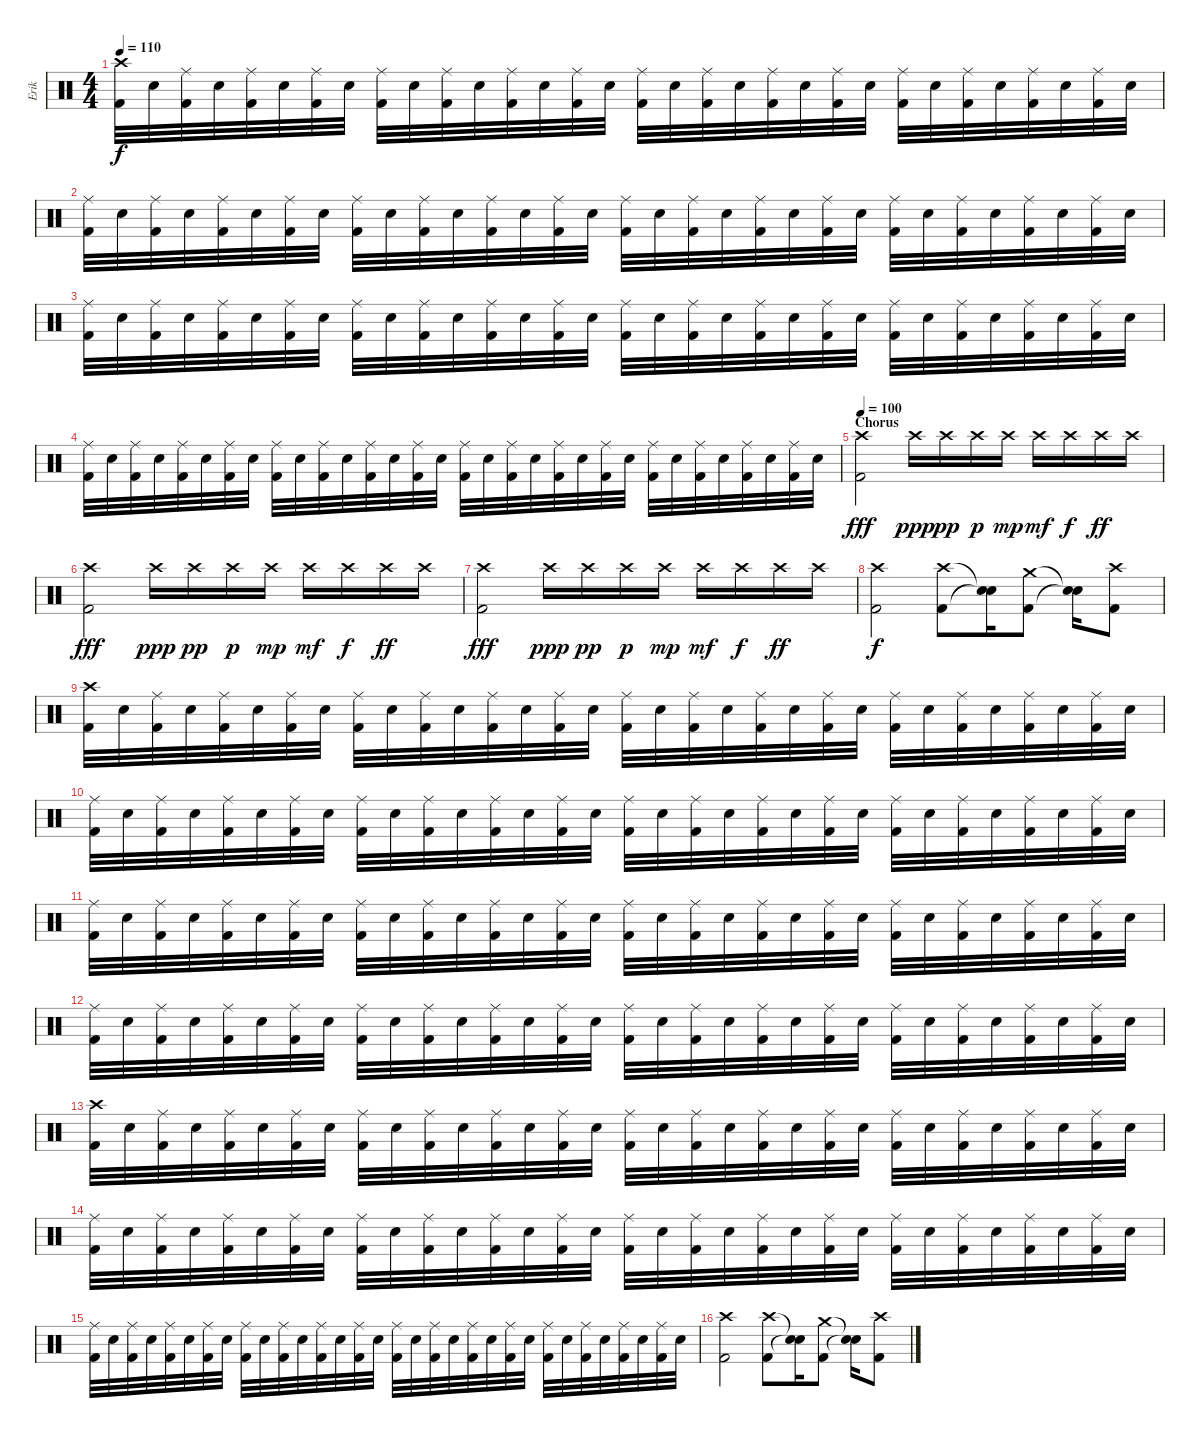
\track ("Erik" "Erik") {instrument percussion}
\staff {score}
\articulation defaults
\ts (4 4)
\tempo 110
\clef neutral
\ks c
("Crash high (hit)" "Kick (hit) 2").32{dy f} "Electric Snare (hit)".32 ("Ride (middle)" "Kick (hit) 2").32 "Electric Snare (hit)".32 ("Ride (middle)" "Kick (hit) 2").32 "Electric Snare (hit)".32 ("Ride (middle)" "Kick (hit) 2").32 "Electric Snare (hit)".32 ("Ride (middle)" "Kick (hit) 2").32 "Electric Snare (hit)".32 ("Ride (middle)" "Kick (hit) 2").32 "Electric Snare (hit)".32 ("Ride (middle)" "Kick (hit) 2").32 "Electric Snare (hit)".32 ("Ride (middle)" "Kick (hit) 2").32 "Electric Snare (hit)".32 ("Ride (middle)" "Kick (hit) 2").32 "Electric Snare (hit)".32 ("Ride (middle)" "Kick (hit) 2").32 "Electric Snare (hit)".32 ("Ride (middle)" "Kick (hit) 2").32 "Electric Snare (hit)".32 ("Ride (middle)" "Kick (hit) 2").32 "Electric Snare (hit)".32 ("Ride (middle)" "Kick (hit) 2").32 "Electric Snare (hit)".32 ("Ride (middle)" "Kick (hit) 2").32 "Electric Snare (hit)".32 ("Ride (middle)" "Kick (hit) 2").32 "Electric Snare (hit)".32 ("Ride (middle)" "Kick (hit) 2").32 "Electric Snare (hit)".32 |
("Ride (middle)" "Kick (hit) 2").32 "Electric Snare (hit)".32 ("Ride (middle)" "Kick (hit) 2").32 "Electric Snare (hit)".32 ("Ride (middle)" "Kick (hit) 2").32 "Electric Snare (hit)".32 ("Ride (middle)" "Kick (hit) 2").32 "Electric Snare (hit)".32 ("Ride (middle)" "Kick (hit) 2").32 "Electric Snare (hit)".32 ("Ride (middle)" "Kick (hit) 2").32 "Electric Snare (hit)".32 ("Ride (middle)" "Kick (hit) 2").32 "Electric Snare (hit)".32 ("Ride (middle)" "Kick (hit) 2").32 "Electric Snare (hit)".32 ("Ride (middle)" "Kick (hit) 2").32 "Electric Snare (hit)".32 ("Ride (middle)" "Kick (hit) 2").32 "Electric Snare (hit)".32 ("Ride (middle)" "Kick (hit) 2").32 "Electric Snare (hit)".32 ("Ride (middle)" "Kick (hit) 2").32 "Electric Snare (hit)".32 ("Ride (middle)" "Kick (hit) 2").32 "Electric Snare (hit)".32 ("Ride (middle)" "Kick (hit) 2").32 "Electric Snare (hit)".32 ("Ride (middle)" "Kick (hit) 2").32 "Electric Snare (hit)".32 ("Ride (middle)" "Kick (hit) 2").32 "Electric Snare (hit)".32 |
("Ride (middle)" "Kick (hit) 2").32 "Electric Snare (hit)".32 ("Ride (middle)" "Kick (hit) 2").32 "Electric Snare (hit)".32 ("Ride (middle)" "Kick (hit) 2").32 "Electric Snare (hit)".32 ("Ride (middle)" "Kick (hit) 2").32 "Electric Snare (hit)".32 ("Ride (middle)" "Kick (hit) 2").32 "Electric Snare (hit)".32 ("Ride (middle)" "Kick (hit) 2").32 "Electric Snare (hit)".32 ("Ride (middle)" "Kick (hit) 2").32 "Electric Snare (hit)".32 ("Ride (middle)" "Kick (hit) 2").32 "Electric Snare (hit)".32 ("Ride (middle)" "Kick (hit) 2").32 "Electric Snare (hit)".32 ("Ride (middle)" "Kick (hit) 2").32 "Electric Snare (hit)".32 ("Ride (middle)" "Kick (hit) 2").32 "Electric Snare (hit)".32 ("Ride (middle)" "Kick (hit) 2").32 "Electric Snare (hit)".32 ("Ride (middle)" "Kick (hit) 2").32 "Electric Snare (hit)".32 ("Ride (middle)" "Kick (hit) 2").32 "Electric Snare (hit)".32 ("Ride (middle)" "Kick (hit) 2").32 "Electric Snare (hit)".32 ("Ride (middle)" "Kick (hit) 2").32 "Electric Snare (hit)".32 |
("Ride (middle)" "Kick (hit) 2").32 "Electric Snare (hit)".32 ("Ride (middle)" "Kick (hit) 2").32 "Electric Snare (hit)".32 ("Ride (middle)" "Kick (hit) 2").32 "Electric Snare (hit)".32 ("Ride (middle)" "Kick (hit) 2").32 "Electric Snare (hit)".32 ("Ride (middle)" "Kick (hit) 2").32 "Electric Snare (hit)".32 ("Ride (middle)" "Kick (hit) 2").32 "Electric Snare (hit)".32 ("Ride (middle)" "Kick (hit) 2").32 "Electric Snare (hit)".32 ("Ride (middle)" "Kick (hit) 2").32 "Electric Snare (hit)".32 ("Ride (middle)" "Kick (hit) 2").32 "Electric Snare (hit)".32 ("Ride (middle)" "Kick (hit) 2").32 "Electric Snare (hit)".32 ("Ride (middle)" "Kick (hit) 2").32 "Electric Snare (hit)".32 ("Ride (middle)" "Kick (hit) 2").32 "Electric Snare (hit)".32 ("Ride (middle)" "Kick (hit) 2").32 "Electric Snare (hit)".32 ("Ride (middle)" "Kick (hit) 2").32 "Electric Snare (hit)".32 ("Ride (middle)" "Kick (hit) 2").32 "Electric Snare (hit)".32 ("Ride (middle)" "Kick (hit) 2").32 "Electric Snare (hit)".32 |
\section ("" "Chorus")
\tempo 100
("Crash high (hit)" "Kick (hit) 2").2{dy fff} "Crash high (hit)".16{dy ppp} "Crash high (hit)".16{dy pp} "Crash high (hit)".16{dy p} "Crash high (hit)".16{dy mp} "Crash high (hit)".16{dy mf} "Crash high (hit)".16{dy f} "Crash high (hit)".16{dy ff} "Crash high (hit)".16 |
("Crash high (hit)" "Kick (hit) 2").2{dy fff} "Crash high (hit)".16{dy ppp} "Crash high (hit)".16{dy pp} "Crash high (hit)".16{dy p} "Crash high (hit)".16{dy mp} "Crash high (hit)".16{dy mf} "Crash high (hit)".16{dy f} "Crash high (hit)".16{dy ff} "Crash high (hit)".16 |
("Crash high (hit)" "Kick (hit) 2").2{dy fff} "Crash high (hit)".16{dy ppp} "Crash high (hit)".16{dy pp} "Crash high (hit)".16{dy p} "Crash high (hit)".16{dy mp} "Crash high (hit)".16{dy mf} "Crash high (hit)".16{dy f} "Crash high (hit)".16{dy ff} "Crash high (hit)".16 |
("Crash high (hit)" "Kick (hit) 2").2{dy f} ("Crash high (hit)" "Kick (hit) 2").8 ("Snare (hit)"{t} "Snare (hit)"{t}).16 ("Crash medium (hit)" "Kick (hit) 2").8 ("Snare (hit)"{t} "Snare (hit)"{t}).16 ("Crash high (hit)" "Kick (hit) 2").8 |
("Crash high (hit)" "Kick (hit) 2").32 "Electric Snare (hit)".32 ("Ride (middle)" "Kick (hit) 2").32 "Electric Snare (hit)".32 ("Ride (middle)" "Kick (hit) 2").32 "Electric Snare (hit)".32 ("Ride (middle)" "Kick (hit) 2").32 "Electric Snare (hit)".32 ("Ride (middle)" "Kick (hit) 2").32 "Electric Snare (hit)".32 ("Ride (middle)" "Kick (hit) 2").32 "Electric Snare (hit)".32 ("Ride (middle)" "Kick (hit) 2").32 "Electric Snare (hit)".32 ("Ride (middle)" "Kick (hit) 2").32 "Electric Snare (hit)".32 ("Ride (middle)" "Kick (hit) 2").32 "Electric Snare (hit)".32 ("Ride (middle)" "Kick (hit) 2").32 "Electric Snare (hit)".32 ("Ride (middle)" "Kick (hit) 2").32 "Electric Snare (hit)".32 ("Ride (middle)" "Kick (hit) 2").32 "Electric Snare (hit)".32 ("Ride (middle)" "Kick (hit) 2").32 "Electric Snare (hit)".32 ("Ride (middle)" "Kick (hit) 2").32 "Electric Snare (hit)".32 ("Ride (middle)" "Kick (hit) 2").32 "Electric Snare (hit)".32 ("Ride (middle)" "Kick (hit) 2").32 "Electric Snare (hit)".32 |
("Ride (middle)" "Kick (hit) 2").32 "Electric Snare (hit)".32 ("Ride (middle)" "Kick (hit) 2").32 "Electric Snare (hit)".32 ("Ride (middle)" "Kick (hit) 2").32 "Electric Snare (hit)".32 ("Ride (middle)" "Kick (hit) 2").32 "Electric Snare (hit)".32 ("Ride (middle)" "Kick (hit) 2").32 "Electric Snare (hit)".32 ("Ride (middle)" "Kick (hit) 2").32 "Electric Snare (hit)".32 ("Ride (middle)" "Kick (hit) 2").32 "Electric Snare (hit)".32 ("Ride (middle)" "Kick (hit) 2").32 "Electric Snare (hit)".32 ("Ride (middle)" "Kick (hit) 2").32 "Electric Snare (hit)".32 ("Ride (middle)" "Kick (hit) 2").32 "Electric Snare (hit)".32 ("Ride (middle)" "Kick (hit) 2").32 "Electric Snare (hit)".32 ("Ride (middle)" "Kick (hit) 2").32 "Electric Snare (hit)".32 ("Ride (middle)" "Kick (hit) 2").32 "Electric Snare (hit)".32 ("Ride (middle)" "Kick (hit) 2").32 "Electric Snare (hit)".32 ("Ride (middle)" "Kick (hit) 2").32 "Electric Snare (hit)".32 ("Ride (middle)" "Kick (hit) 2").32 "Electric Snare (hit)".32 |
("Ride (middle)" "Kick (hit) 2").32 "Electric Snare (hit)".32 ("Ride (middle)" "Kick (hit) 2").32 "Electric Snare (hit)".32 ("Ride (middle)" "Kick (hit) 2").32 "Electric Snare (hit)".32 ("Ride (middle)" "Kick (hit) 2").32 "Electric Snare (hit)".32 ("Ride (middle)" "Kick (hit) 2").32 "Electric Snare (hit)".32 ("Ride (middle)" "Kick (hit) 2").32 "Electric Snare (hit)".32 ("Ride (middle)" "Kick (hit) 2").32 "Electric Snare (hit)".32 ("Ride (middle)" "Kick (hit) 2").32 "Electric Snare (hit)".32 ("Ride (middle)" "Kick (hit) 2").32 "Electric Snare (hit)".32 ("Ride (middle)" "Kick (hit) 2").32 "Electric Snare (hit)".32 ("Ride (middle)" "Kick (hit) 2").32 "Electric Snare (hit)".32 ("Ride (middle)" "Kick (hit) 2").32 "Electric Snare (hit)".32 ("Ride (middle)" "Kick (hit) 2").32 "Electric Snare (hit)".32 ("Ride (middle)" "Kick (hit) 2").32 "Electric Snare (hit)".32 ("Ride (middle)" "Kick (hit) 2").32 "Electric Snare (hit)".32 ("Ride (middle)" "Kick (hit) 2").32 "Electric Snare (hit)".32 |
("Ride (middle)" "Kick (hit) 2").32 "Electric Snare (hit)".32 ("Ride (middle)" "Kick (hit) 2").32 "Electric Snare (hit)".32 ("Ride (middle)" "Kick (hit) 2").32 "Electric Snare (hit)".32 ("Ride (middle)" "Kick (hit) 2").32 "Electric Snare (hit)".32 ("Ride (middle)" "Kick (hit) 2").32 "Electric Snare (hit)".32 ("Ride (middle)" "Kick (hit) 2").32 "Electric Snare (hit)".32 ("Ride (middle)" "Kick (hit) 2").32 "Electric Snare (hit)".32 ("Ride (middle)" "Kick (hit) 2").32 "Electric Snare (hit)".32 ("Ride (middle)" "Kick (hit) 2").32 "Electric Snare (hit)".32 ("Ride (middle)" "Kick (hit) 2").32 "Electric Snare (hit)".32 ("Ride (middle)" "Kick (hit) 2").32 "Electric Snare (hit)".32 ("Ride (middle)" "Kick (hit) 2").32 "Electric Snare (hit)".32 ("Ride (middle)" "Kick (hit) 2").32 "Electric Snare (hit)".32 ("Ride (middle)" "Kick (hit) 2").32 "Electric Snare (hit)".32 ("Ride (middle)" "Kick (hit) 2").32 "Electric Snare (hit)".32 ("Ride (middle)" "Kick (hit) 2").32 "Electric Snare (hit)".32 |
("Crash high (hit)" "Kick (hit) 2").32 "Electric Snare (hit)".32 ("Ride (middle)" "Kick (hit) 2").32 "Electric Snare (hit)".32 ("Ride (middle)" "Kick (hit) 2").32 "Electric Snare (hit)".32 ("Ride (middle)" "Kick (hit) 2").32 "Electric Snare (hit)".32 ("Ride (middle)" "Kick (hit) 2").32 "Electric Snare (hit)".32 ("Ride (middle)" "Kick (hit) 2").32 "Electric Snare (hit)".32 ("Ride (middle)" "Kick (hit) 2").32 "Electric Snare (hit)".32 ("Ride (middle)" "Kick (hit) 2").32 "Electric Snare (hit)".32 ("Ride (middle)" "Kick (hit) 2").32 "Electric Snare (hit)".32 ("Ride (middle)" "Kick (hit) 2").32 "Electric Snare (hit)".32 ("Ride (middle)" "Kick (hit) 2").32 "Electric Snare (hit)".32 ("Ride (middle)" "Kick (hit) 2").32 "Electric Snare (hit)".32 ("Ride (middle)" "Kick (hit) 2").32 "Electric Snare (hit)".32 ("Ride (middle)" "Kick (hit) 2").32 "Electric Snare (hit)".32 ("Ride (middle)" "Kick (hit) 2").32 "Electric Snare (hit)".32 ("Ride (middle)" "Kick (hit) 2").32 "Electric Snare (hit)".32 |
("Ride (middle)" "Kick (hit) 2").32 "Electric Snare (hit)".32 ("Ride (middle)" "Kick (hit) 2").32 "Electric Snare (hit)".32 ("Ride (middle)" "Kick (hit) 2").32 "Electric Snare (hit)".32 ("Ride (middle)" "Kick (hit) 2").32 "Electric Snare (hit)".32 ("Ride (middle)" "Kick (hit) 2").32 "Electric Snare (hit)".32 ("Ride (middle)" "Kick (hit) 2").32 "Electric Snare (hit)".32 ("Ride (middle)" "Kick (hit) 2").32 "Electric Snare (hit)".32 ("Ride (middle)" "Kick (hit) 2").32 "Electric Snare (hit)".32 ("Ride (middle)" "Kick (hit) 2").32 "Electric Snare (hit)".32 ("Ride (middle)" "Kick (hit) 2").32 "Electric Snare (hit)".32 ("Ride (middle)" "Kick (hit) 2").32 "Electric Snare (hit)".32 ("Ride (middle)" "Kick (hit) 2").32 "Electric Snare (hit)".32 ("Ride (middle)" "Kick (hit) 2").32 "Electric Snare (hit)".32 ("Ride (middle)" "Kick (hit) 2").32 "Electric Snare (hit)".32 ("Ride (middle)" "Kick (hit) 2").32 "Electric Snare (hit)".32 ("Ride (middle)" "Kick (hit) 2").32 "Electric Snare (hit)".32 |
("Ride (middle)" "Kick (hit) 2").32 "Electric Snare (hit)".32 ("Ride (middle)" "Kick (hit) 2").32 "Electric Snare (hit)".32 ("Ride (middle)" "Kick (hit) 2").32 "Electric Snare (hit)".32 ("Ride (middle)" "Kick (hit) 2").32 "Electric Snare (hit)".32 ("Ride (middle)" "Kick (hit) 2").32 "Electric Snare (hit)".32 ("Ride (middle)" "Kick (hit) 2").32 "Electric Snare (hit)".32 ("Ride (middle)" "Kick (hit) 2").32 "Electric Snare (hit)".32 ("Ride (middle)" "Kick (hit) 2").32 "Electric Snare (hit)".32 ("Ride (middle)" "Kick (hit) 2").32 "Electric Snare (hit)".32 ("Ride (middle)" "Kick (hit) 2").32 "Electric Snare (hit)".32 ("Ride (middle)" "Kick (hit) 2").32 "Electric Snare (hit)".32 ("Ride (middle)" "Kick (hit) 2").32 "Electric Snare (hit)".32 ("Ride (middle)" "Kick (hit) 2").32 "Electric Snare (hit)".32 ("Ride (middle)" "Kick (hit) 2").32 "Electric Snare (hit)".32 ("Ride (middle)" "Kick (hit) 2").32 "Electric Snare (hit)".32 ("Ride (middle)" "Kick (hit) 2").32 "Electric Snare (hit)".32 |
("Crash high (hit)" "Kick (hit) 2").2 ("Crash high (hit)" "Kick (hit) 2").8 ("Snare (hit)"{t} "Snare (hit)"{t}).16 ("Crash medium (hit)" "Kick (hit) 2").8 ("Snare (hit)"{t} "Snare (hit)"{t}).16 ("Crash high (hit)" "Kick (hit) 2").8
